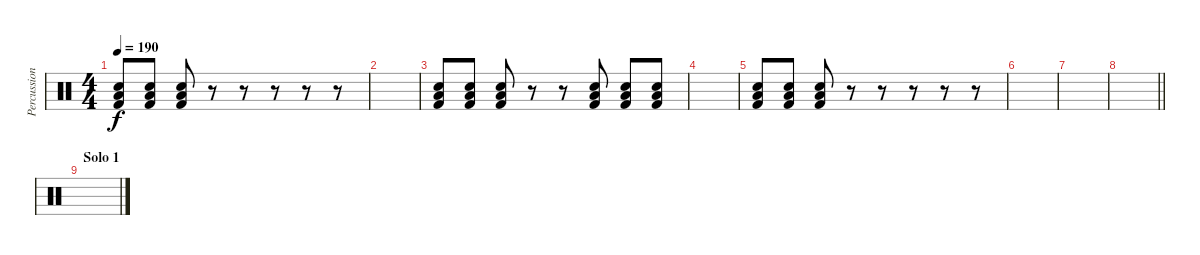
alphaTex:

\track ("Percussion" "Percussion") {instrument percussion}
\staff {score}
\articulation defaults
\ts (4 4)
\tempo 190
\clef neutral
\ks c
("Electric Snare (hit)" "Low Tom (hit)" "Kick (hit) 2").8{dy f} ("Electric Snare (hit)" "Low Tom (hit)" "Kick (hit) 2").8 ("Electric Snare (hit)" "Low Tom (hit)" "Kick (hit) 2").8 r.8 r.8 r.8 r.8 r.8 |
|
("Electric Snare (hit)" "Low Tom (hit)" "Kick (hit) 2").8 ("Electric Snare (hit)" "Low Tom (hit)" "Kick (hit) 2").8 ("Electric Snare (hit)" "Low Tom (hit)" "Kick (hit) 2").8 r.8 r.8 ("Electric Snare (hit)" "Low Tom (hit)" "Kick (hit) 2").8 ("Electric Snare (hit)" "Low Tom (hit)" "Kick (hit) 2").8 ("Electric Snare (hit)" "Low Tom (hit)" "Kick (hit) 2").8 |
|
("Electric Snare (hit)" "Low Tom (hit)" "Kick (hit) 2").8 ("Electric Snare (hit)" "Low Tom (hit)" "Kick (hit) 2").8 ("Electric Snare (hit)" "Low Tom (hit)" "Kick (hit) 2").8 r.8 r.8 r.8 r.8 r.8 |
|
|
\barLineRight lightlight
|
\section ("" "Solo 1")
